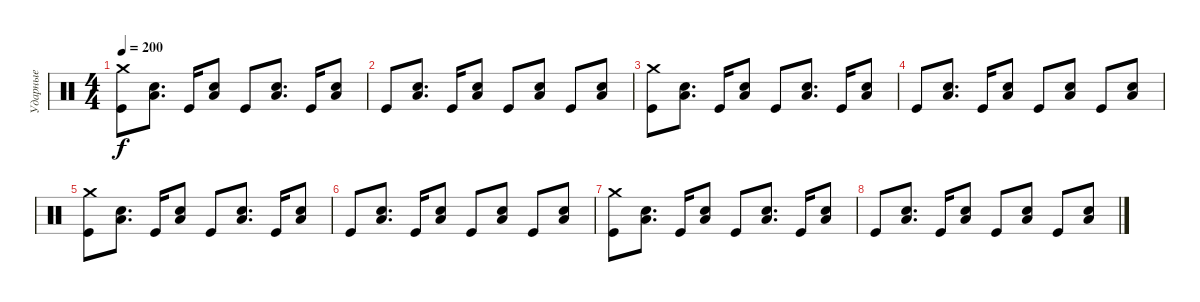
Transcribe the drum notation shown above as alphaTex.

\track ("Ударные" "Ударные") {instrument percussion}
\staff {score}
\articulation defaults
\ts (4 4)
\tempo 200
\clef neutral
\ks c
("Crash medium (hit)" "Kick (hit)").8{dy f} ("Low Floor Tom (hit)" "Snare (hit) 2").8{d} "Kick (hit)".16 ("Low Floor Tom (hit)" "Snare (hit) 2").8 "Kick (hit)".8 ("Low Floor Tom (hit)" "Snare (hit) 2").8{d} "Kick (hit)".16 ("Low Floor Tom (hit)" "Snare (hit) 2").8 |
"Kick (hit)".8 ("Low Floor Tom (hit)" "Snare (hit) 2").8{d} "Kick (hit)".16 ("Low Floor Tom (hit)" "Snare (hit) 2").8 "Kick (hit)".8 ("Low Floor Tom (hit)" "Snare (hit) 2").8 "Kick (hit)".8 ("Low Floor Tom (hit)" "Snare (hit) 2").8 |
("Crash medium (hit)" "Kick (hit)").8 ("Low Floor Tom (hit)" "Snare (hit) 2").8{d} "Kick (hit)".16 ("Low Floor Tom (hit)" "Snare (hit) 2").8 "Kick (hit)".8 ("Low Floor Tom (hit)" "Snare (hit) 2").8{d} "Kick (hit)".16 ("Low Floor Tom (hit)" "Snare (hit) 2").8 |
"Kick (hit)".8 ("Low Floor Tom (hit)" "Snare (hit) 2").8{d} "Kick (hit)".16 ("Low Floor Tom (hit)" "Snare (hit) 2").8 "Kick (hit)".8 ("Low Floor Tom (hit)" "Snare (hit) 2").8 "Kick (hit)".8 ("Low Floor Tom (hit)" "Snare (hit) 2").8 |
("Crash medium (hit)" "Kick (hit)").8 ("Low Floor Tom (hit)" "Snare (hit) 2").8{d} "Kick (hit)".16 ("Low Floor Tom (hit)" "Snare (hit) 2").8 "Kick (hit)".8 ("Low Floor Tom (hit)" "Snare (hit) 2").8{d} "Kick (hit)".16 ("Low Floor Tom (hit)" "Snare (hit) 2").8 |
"Kick (hit)".8 ("Low Floor Tom (hit)" "Snare (hit) 2").8{d} "Kick (hit)".16 ("Low Floor Tom (hit)" "Snare (hit) 2").8 "Kick (hit)".8 ("Low Floor Tom (hit)" "Snare (hit) 2").8 "Kick (hit)".8 ("Low Floor Tom (hit)" "Snare (hit) 2").8 |
("Crash medium (hit)" "Kick (hit)").8 ("Low Floor Tom (hit)" "Snare (hit) 2").8{d} "Kick (hit)".16 ("Low Floor Tom (hit)" "Snare (hit) 2").8 "Kick (hit)".8 ("Low Floor Tom (hit)" "Snare (hit) 2").8{d} "Kick (hit)".16 ("Low Floor Tom (hit)" "Snare (hit) 2").8 |
"Kick (hit)".8 ("Low Floor Tom (hit)" "Snare (hit) 2").8{d} "Kick (hit)".16 ("Low Floor Tom (hit)" "Snare (hit) 2").8 "Kick (hit)".8 ("Low Floor Tom (hit)" "Snare (hit) 2").8 "Kick (hit)".8 ("Low Floor Tom (hit)" "Snare (hit) 2").8
